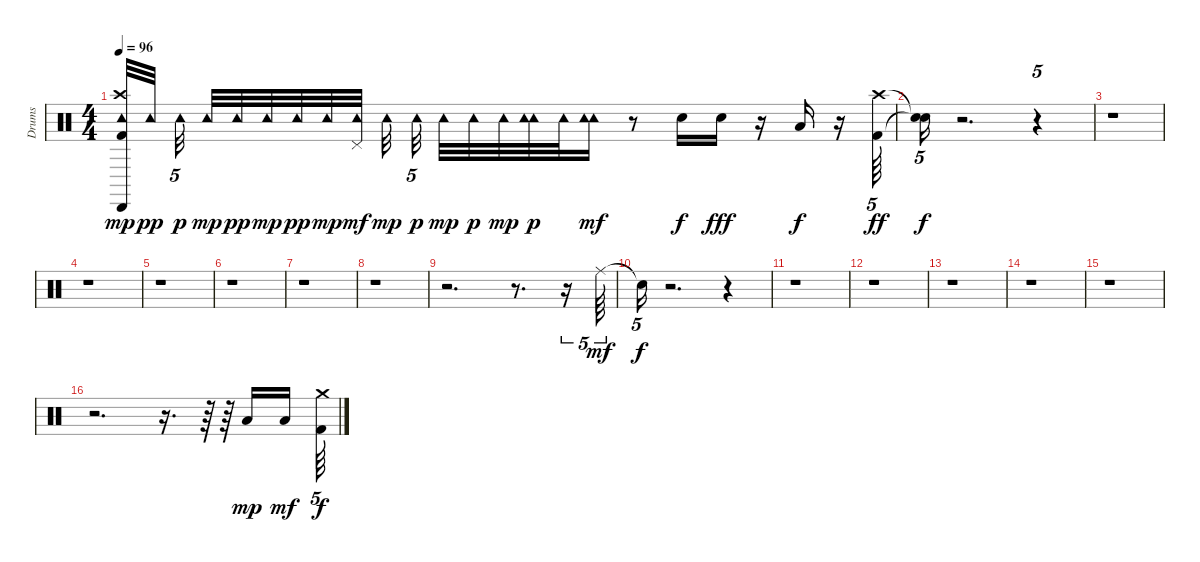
\track ("Drums" "Drums") {instrument percussion}
\staff {score}
\articulation defaults
\ts (4 4)
\tempo 96
\clef neutral
\ks c
("Cabasa (hit)" "Crash high (hit)" "Kick (hit) 2" "Tambourine (hit)").32{dy mp} "Tambourine (hit)".32{dy pp beam splitsecondary} "Tambourine (hit)".32{tu (5 4) dy p beam splitsecondary} "Tambourine (hit)".32{dy mp} "Tambourine (hit)".32{dy pp} "Tambourine (hit)".32{dy mp} "Tambourine (hit)".32{dy pp} "Tambourine (hit)".32{dy mp} ("Tambourine (hit)" "Pedal Hi-Hat (hit)").32{dy mf} "Tambourine (hit)".32{dy mp beam splitsecondary} "Tambourine (hit)".32{tu (5 4) dy p beam splitsecondary} "Tambourine (hit)".32{dy mp} "Tambourine (hit)".32{dy p} "Tambourine (hit)".32{dy mp} ("Tambourine (hit)" "Tambourine (hit)").32{dy p} "Tambourine (hit)".32 ("Tambourine (hit)" "Tambourine (hit)").16{dy mf} r.8 "Snare (hit) 2".16{dy f} "Snare (hit) 2".16{dy fff} r.16 "Low Floor Tom (hit)".16{dy f} r.16 ("Kick (hit) 2" "Crash high (hit)").64{tu (5 4) dy ff} |
("Snare (hit)"{t} "Snare (hit)"{t}).16{tu (5 4) dy f} r.2{d} r.4{tu (5 4)} |
r.1 |
r.1 |
r.1 |
r.1 |
r.1 |
r.1 |
r.2{d} r.8{d} r.16{tu (5 4)} "Ride (middle)".64{tu (5 4) dy mf} |
"Snare (hit)"{t}.16{tu (5 4) dy f} r.2{d} r.4{tu (5 4)} |
r.1 |
r.1 |
r.1 |
r.1 |
r.1 |
r.2{d} r.16{d} r.64 r.64 "Low Floor Tom (hit)".16{dy mp} "Low Floor Tom (hit)".16{dy mf} ("Crash medium (hit)" "Kick (hit) 2").64{tu (5 4) dy f}
